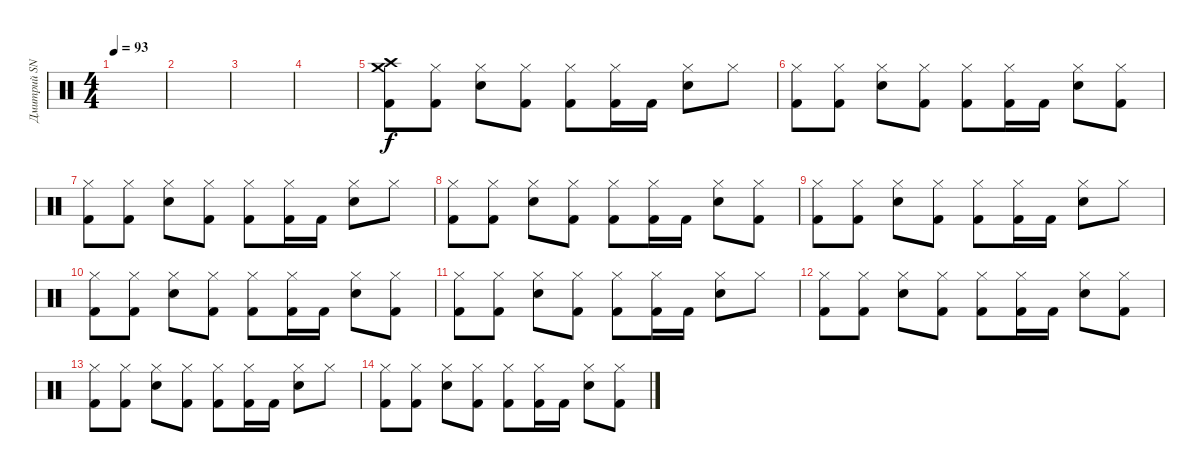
\track ("Дмитрий SNAKE Хакимов" "Дмитрий SN") {instrument percussion}
\staff {score}
\articulation defaults
\ts (4 4)
\tempo 93
\clef neutral
\ks c
|
|
|
|
("Crash high (hit)" "Crash medium (hit)" "Kick (hit) 2").8 ("Hi-Hat (closed)" "Kick (hit) 2").8 ("Hi-Hat (closed)" "Electric Snare (hit)").8 ("Hi-Hat (closed)" "Kick (hit) 2").8 ("Hi-Hat (closed)" "Kick (hit) 2").8 ("Hi-Hat (closed)" "Kick (hit) 2").16 "Kick (hit) 2".16 ("Hi-Hat (closed)" "Snare (hit) 2").8 "Hi-Hat (closed)".8 |
("Hi-Hat (closed)" "Kick (hit) 2").8 ("Hi-Hat (closed)" "Kick (hit) 2").8 ("Hi-Hat (closed)" "Electric Snare (hit)").8 ("Hi-Hat (closed)" "Kick (hit) 2").8 ("Hi-Hat (closed)" "Kick (hit) 2").8 ("Hi-Hat (closed)" "Kick (hit) 2").16 "Kick (hit) 2".16 ("Hi-Hat (closed)" "Snare (hit) 2").8 ("Hi-Hat (closed)" "Kick (hit) 2").8 |
("Hi-Hat (closed)" "Kick (hit) 2").8 ("Hi-Hat (closed)" "Kick (hit) 2").8 ("Hi-Hat (closed)" "Electric Snare (hit)").8 ("Hi-Hat (closed)" "Kick (hit) 2").8 ("Hi-Hat (closed)" "Kick (hit) 2").8 ("Hi-Hat (closed)" "Kick (hit) 2").16 "Kick (hit) 2".16 ("Hi-Hat (closed)" "Snare (hit) 2").8 "Hi-Hat (closed)".8 |
("Hi-Hat (closed)" "Kick (hit) 2").8 ("Hi-Hat (closed)" "Kick (hit) 2").8 ("Hi-Hat (closed)" "Electric Snare (hit)").8 ("Hi-Hat (closed)" "Kick (hit) 2").8 ("Hi-Hat (closed)" "Kick (hit) 2").8 ("Hi-Hat (closed)" "Kick (hit) 2").16 "Kick (hit) 2".16 ("Hi-Hat (closed)" "Snare (hit) 2").8 ("Hi-Hat (closed)" "Kick (hit) 2").8 |
("Hi-Hat (closed)" "Kick (hit) 2").8 ("Hi-Hat (closed)" "Kick (hit) 2").8 ("Hi-Hat (closed)" "Electric Snare (hit)").8 ("Hi-Hat (closed)" "Kick (hit) 2").8 ("Hi-Hat (closed)" "Kick (hit) 2").8 ("Hi-Hat (closed)" "Kick (hit) 2").16 "Kick (hit) 2".16 ("Hi-Hat (closed)" "Snare (hit) 2").8 "Hi-Hat (closed)".8 |
("Hi-Hat (closed)" "Kick (hit) 2").8 ("Hi-Hat (closed)" "Kick (hit) 2").8 ("Hi-Hat (closed)" "Electric Snare (hit)").8 ("Hi-Hat (closed)" "Kick (hit) 2").8 ("Hi-Hat (closed)" "Kick (hit) 2").8 ("Hi-Hat (closed)" "Kick (hit) 2").16 "Kick (hit) 2".16 ("Hi-Hat (closed)" "Snare (hit) 2").8 ("Hi-Hat (closed)" "Kick (hit) 2").8 |
("Hi-Hat (closed)" "Kick (hit) 2").8 ("Hi-Hat (closed)" "Kick (hit) 2").8 ("Hi-Hat (closed)" "Electric Snare (hit)").8 ("Hi-Hat (closed)" "Kick (hit) 2").8 ("Hi-Hat (closed)" "Kick (hit) 2").8 ("Hi-Hat (closed)" "Kick (hit) 2").16 "Kick (hit) 2".16 ("Hi-Hat (closed)" "Snare (hit) 2").8 "Hi-Hat (closed)".8 |
("Hi-Hat (closed)" "Kick (hit) 2").8 ("Hi-Hat (closed)" "Kick (hit) 2").8 ("Hi-Hat (closed)" "Electric Snare (hit)").8 ("Hi-Hat (closed)" "Kick (hit) 2").8 ("Hi-Hat (closed)" "Kick (hit) 2").8 ("Hi-Hat (closed)" "Kick (hit) 2").16 "Kick (hit) 2".16 ("Hi-Hat (closed)" "Snare (hit) 2").8 ("Hi-Hat (closed)" "Kick (hit) 2").8 |
("Hi-Hat (closed)" "Kick (hit) 2").8 ("Hi-Hat (closed)" "Kick (hit) 2").8 ("Hi-Hat (closed)" "Electric Snare (hit)").8 ("Hi-Hat (closed)" "Kick (hit) 2").8 ("Hi-Hat (closed)" "Kick (hit) 2").8 ("Hi-Hat (closed)" "Kick (hit) 2").16 "Kick (hit) 2".16 ("Hi-Hat (closed)" "Snare (hit) 2").8 "Hi-Hat (closed)".8 |
("Hi-Hat (closed)" "Kick (hit) 2").8 ("Hi-Hat (closed)" "Kick (hit) 2").8 ("Hi-Hat (closed)" "Electric Snare (hit)").8 ("Hi-Hat (closed)" "Kick (hit) 2").8 ("Hi-Hat (closed)" "Kick (hit) 2").8 ("Hi-Hat (closed)" "Kick (hit) 2").16 "Kick (hit) 2".16 ("Hi-Hat (closed)" "Snare (hit) 2").8 ("Hi-Hat (closed)" "Kick (hit) 2").8
